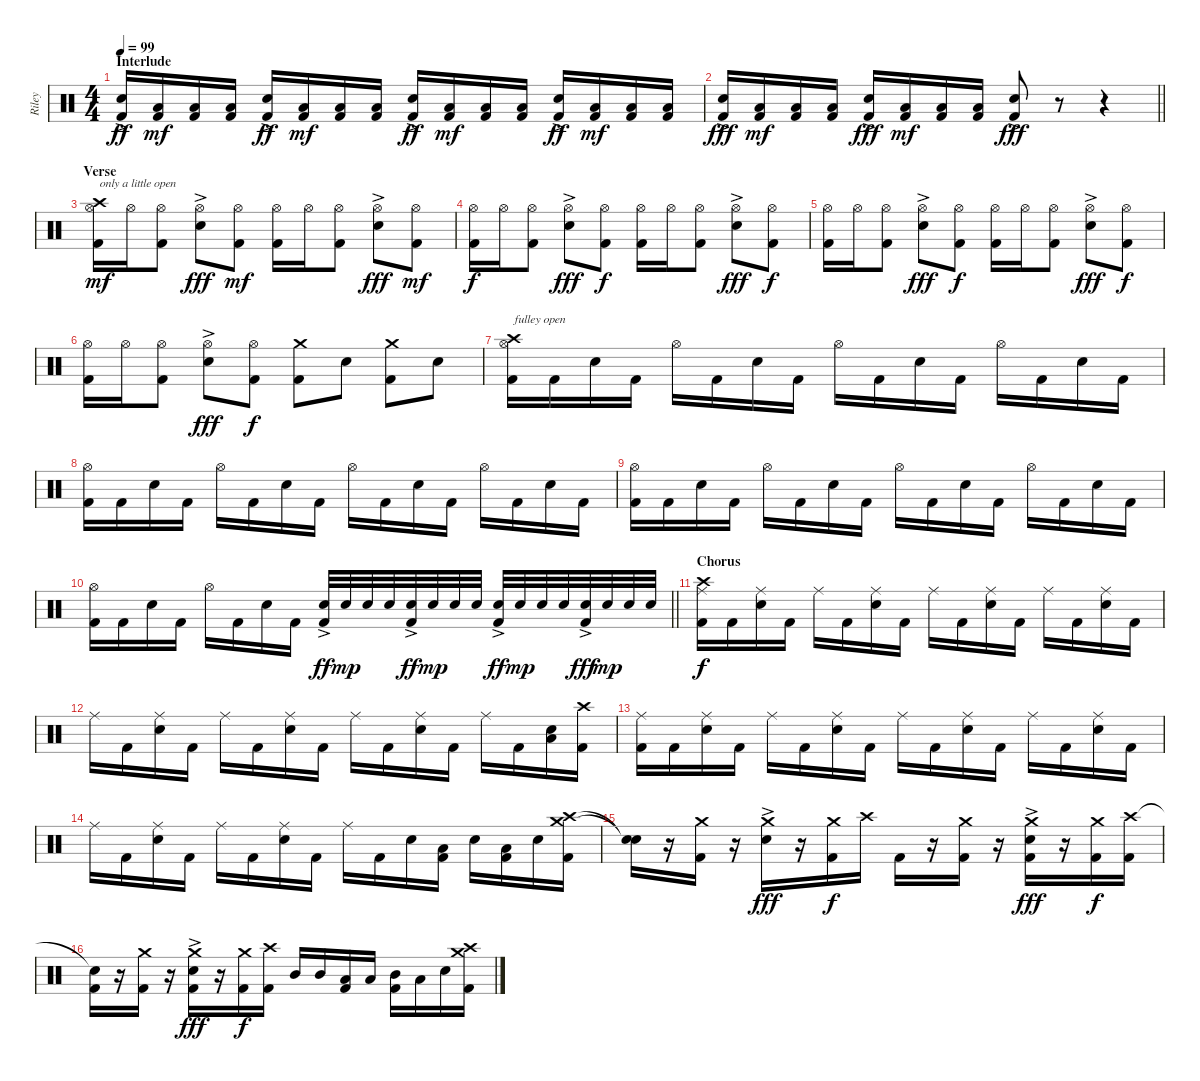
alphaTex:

\track ("Riley" "Riley") {instrument percussion}
\staff {score}
\articulation defaults
\ts (4 4)
\section ("" "Interlude")
\tempo 99
\clef neutral
\ks c
("Electric Snare (hit)"{ac} "Kick (hit) 2").16{dy ff} ("Low Tom (hit)" "Kick (hit) 2").16{dy mf} ("Low Tom (hit)" "Kick (hit) 2").16 ("Low Tom (hit)" "Kick (hit) 2").16 ("Electric Snare (hit)"{ac} "Kick (hit) 2").16{dy ff} ("Low Tom (hit)" "Kick (hit) 2").16{dy mf} ("Low Tom (hit)" "Kick (hit) 2").16 ("Low Tom (hit)" "Kick (hit) 2").16 ("Electric Snare (hit)"{ac} "Kick (hit) 2").16{dy ff} ("Low Tom (hit)" "Kick (hit) 2").16{dy mf} ("Low Tom (hit)" "Kick (hit) 2").16 ("Low Tom (hit)" "Kick (hit) 2").16 ("Electric Snare (hit)"{ac} "Kick (hit) 2").16{dy ff} ("Low Tom (hit)" "Kick (hit) 2").16{dy mf} ("Low Tom (hit)" "Kick (hit) 2").16 ("Low Tom (hit)" "Kick (hit) 2").16 |
\barLineRight lightlight
("Electric Snare (hit)"{ac} "Kick (hit) 2").16{dy fff} ("Low Tom (hit)" "Kick (hit) 2").16{dy mf} ("Low Tom (hit)" "Kick (hit) 2").16 ("Low Tom (hit)" "Kick (hit) 2").16 ("Electric Snare (hit)"{ac} "Kick (hit) 2").16{dy fff} ("Low Tom (hit)" "Kick (hit) 2").16{dy mf} ("Low Tom (hit)" "Kick (hit) 2").16 ("Low Tom (hit)" "Kick (hit) 2").16 ("Electric Snare (hit)"{ac} "Kick (hit) 2").8{dy fff} r.8 r.4 |
\section ("" "Verse")
("Crash high (hit)" "Hi-Hat (open)" "Kick (hit) 2").16{txt "only a little open" dy mf} "Hi-Hat (open)".16 ("Hi-Hat (open)" "Kick (hit) 2").8 ("Hi-Hat (open)" "Electric Snare (hit)"{ac}).8{dy fff} ("Hi-Hat (open)" "Kick (hit) 2").8{dy mf} ("Hi-Hat (open)" "Kick (hit) 2").16 "Hi-Hat (open)".16 ("Hi-Hat (open)" "Kick (hit) 2").8 ("Hi-Hat (open)" "Electric Snare (hit)"{ac}).8{dy fff} ("Hi-Hat (open)" "Kick (hit) 2").8{dy mf} |
("Hi-Hat (open)" "Kick (hit) 2").16{dy f} "Hi-Hat (open)".16 ("Hi-Hat (open)" "Kick (hit) 2").8 ("Hi-Hat (open)" "Electric Snare (hit)"{ac}).8{dy fff} ("Hi-Hat (open)" "Kick (hit) 2").8{dy f} ("Hi-Hat (open)" "Kick (hit) 2").16 "Hi-Hat (open)".16 ("Hi-Hat (open)" "Kick (hit) 2").8 ("Hi-Hat (open)" "Electric Snare (hit)"{ac}).8{dy fff} ("Hi-Hat (open)" "Kick (hit) 2").8{dy f} |
("Hi-Hat (open)" "Kick (hit) 2").16 "Hi-Hat (open)".16 ("Hi-Hat (open)" "Kick (hit) 2").8 ("Hi-Hat (open)" "Electric Snare (hit)"{ac}).8{dy fff} ("Hi-Hat (open)" "Kick (hit) 2").8{dy f} ("Hi-Hat (open)" "Kick (hit) 2").16 "Hi-Hat (open)".16 ("Hi-Hat (open)" "Kick (hit) 2").8 ("Hi-Hat (open)" "Electric Snare (hit)"{ac}).8{dy fff} ("Hi-Hat (open)" "Kick (hit) 2").8{dy f} |
("Hi-Hat (open)" "Kick (hit) 2").16 "Hi-Hat (open)".16 ("Hi-Hat (open)" "Kick (hit) 2").8 ("Hi-Hat (open)" "Electric Snare (hit)"{ac}).8{dy fff} ("Hi-Hat (open)" "Kick (hit) 2").8{dy f} ("Crash medium (hit)" "Kick (hit) 2").8 "Electric Snare (hit)".8 ("Crash medium (hit)" "Kick (hit) 2").8 "Electric Snare (hit)".8 |
("Crash high (hit)" "Hi-Hat (open)" "Kick (hit) 2").16{txt "fulley open"} "Kick (hit) 2".16 "Electric Snare (hit)".16 "Kick (hit) 2".16 "Hi-Hat (open)".16 "Kick (hit) 2".16 "Electric Snare (hit)".16 "Kick (hit) 2".16 "Hi-Hat (open)".16 "Kick (hit) 2".16 "Electric Snare (hit)".16 "Kick (hit) 2".16 "Hi-Hat (open)".16 "Kick (hit) 2".16 "Electric Snare (hit)".16 "Kick (hit) 2".16 |
("Hi-Hat (open)" "Kick (hit) 2").16 "Kick (hit) 2".16 "Electric Snare (hit)".16 "Kick (hit) 2".16 "Hi-Hat (open)".16 "Kick (hit) 2".16 "Electric Snare (hit)".16 "Kick (hit) 2".16 "Hi-Hat (open)".16 "Kick (hit) 2".16 "Electric Snare (hit)".16 "Kick (hit) 2".16 "Hi-Hat (open)".16 "Kick (hit) 2".16 "Electric Snare (hit)".16 "Kick (hit) 2".16 |
("Hi-Hat (open)" "Kick (hit) 2").16 "Kick (hit) 2".16 "Electric Snare (hit)".16 "Kick (hit) 2".16 "Hi-Hat (open)".16 "Kick (hit) 2".16 "Electric Snare (hit)".16 "Kick (hit) 2".16 "Hi-Hat (open)".16 "Kick (hit) 2".16 "Electric Snare (hit)".16 "Kick (hit) 2".16 "Hi-Hat (open)".16 "Kick (hit) 2".16 "Electric Snare (hit)".16 "Kick (hit) 2".16 |
\barLineRight lightlight
("Hi-Hat (open)" "Kick (hit) 2").16 "Kick (hit) 2".16 "Electric Snare (hit)".16 "Kick (hit) 2".16 "Hi-Hat (open)".16 "Kick (hit) 2".16 "Electric Snare (hit)".16 "Kick (hit) 2".16 ("Electric Snare (hit)"{ac} "Kick (hit) 2").32{dy ff} "Electric Snare (hit)".32{dy mp} "Electric Snare (hit)".32 "Electric Snare (hit)".32 ("Electric Snare (hit)"{ac} "Kick (hit) 2").32{dy ff} "Electric Snare (hit)".32{dy mp} "Electric Snare (hit)".32 "Electric Snare (hit)".32 ("Electric Snare (hit)"{ac} "Kick (hit) 2").32{dy ff} "Electric Snare (hit)".32{dy mp} "Electric Snare (hit)".32 "Electric Snare (hit)".32 ("Electric Snare (hit)"{ac} "Kick (hit) 2").32{dy fff} "Electric Snare (hit)".32{dy mp} "Electric Snare (hit)".32 "Electric Snare (hit)".32 |
\section ("" "Chorus")
("Crash high (hit)" "Ride (middle)" "Kick (hit) 2").16{dy f} "Kick (hit) 2".16 ("Ride (middle)" "Electric Snare (hit)").16 "Kick (hit) 2".16 "Ride (middle)".16 "Kick (hit) 2".16 ("Ride (middle)" "Electric Snare (hit)").16 "Kick (hit) 2".16 "Ride (middle)".16 "Kick (hit) 2".16 ("Ride (middle)" "Electric Snare (hit)").16 "Kick (hit) 2".16 "Ride (middle)".16 "Kick (hit) 2".16 ("Ride (middle)" "Electric Snare (hit)").16 "Kick (hit) 2".16 |
"Ride (middle)".16 "Kick (hit) 2".16 ("Ride (middle)" "Electric Snare (hit)").16 "Kick (hit) 2".16 "Ride (middle)".16 "Kick (hit) 2".16 ("Ride (middle)" "Electric Snare (hit)").16 "Kick (hit) 2".16 "Ride (middle)".16 "Kick (hit) 2".16 ("Ride (middle)" "Electric Snare (hit)").16 "Kick (hit) 2".16 "Ride (middle)".16 "Kick (hit) 2".16 ("Low Tom (hit)" "Electric Snare (hit)").16 ("Crash high (hit)" "Kick (hit) 2").16 |
("Ride (middle)" "Kick (hit) 2").16 "Kick (hit) 2".16 ("Ride (middle)" "Electric Snare (hit)").16 "Kick (hit) 2".16 "Ride (middle)".16 "Kick (hit) 2".16 ("Ride (middle)" "Electric Snare (hit)").16 "Kick (hit) 2".16 "Ride (middle)".16 "Kick (hit) 2".16 ("Ride (middle)" "Electric Snare (hit)").16 "Kick (hit) 2".16 "Ride (middle)".16 "Kick (hit) 2".16 ("Ride (middle)" "Electric Snare (hit)").16 "Kick (hit) 2".16 |
"Ride (middle)".16 "Kick (hit) 2".16 ("Ride (middle)" "Electric Snare (hit)").16 "Kick (hit) 2".16 "Ride (middle)".16 "Kick (hit) 2".16 ("Ride (middle)" "Electric Snare (hit)").16 "Kick (hit) 2".16 "Ride (middle)".16 "Kick (hit) 2".16 "Electric Snare (hit)".16 ("Low Tom (hit)" "Kick (hit) 2").16 "Electric Snare (hit)".16 ("Low Tom (hit)" "Kick (hit) 2").16 "Electric Snare (hit)".16 ("Crash high (hit)" "Crash medium (hit)" "Kick (hit) 2").16 |
("Snare (hit)"{t} "Snare (hit)"{t}).16 r.16 ("Crash medium (hit)" "Kick (hit) 2").16 r.16 ("Crash medium (hit)" "Electric Snare (hit)"{ac}).16{dy fff} r.16 ("Crash medium (hit)" "Kick (hit) 2").16{dy f} "Crash high (hit)".16 "Kick (hit) 2".16 r.16 ("Crash medium (hit)" "Kick (hit) 2").16 r.16 ("Crash medium (hit)" "Electric Snare (hit)"{ac} "Kick (hit) 2").16{dy fff} r.16 ("Crash medium (hit)" "Kick (hit) 2").16{dy f} ("Crash high (hit)" "Kick (hit) 2").16 |
("Snare (hit)"{t} "Kick (hit) 2").16 r.16 ("Crash medium (hit)" "Kick (hit) 2").16 r.16 ("Crash medium (hit)" "Electric Snare (hit)"{ac} "Kick (hit) 2").16{dy fff} r.16 ("Crash medium (hit)" "Kick (hit) 2").16{dy f} ("Crash high (hit)" "Kick (hit) 2").16 "Mid Tom (hit)".16 "Mid Tom (hit)".16 ("Low Tom (hit)" "Kick (hit) 2").16 "Low Tom (hit)".16 ("Mid Tom (hit)" "Kick (hit) 2").16 "Low Tom (hit)".16 "Electric Snare (hit)".16 ("Crash high (hit)" "Crash medium (hit)" "Kick (hit) 2").16
